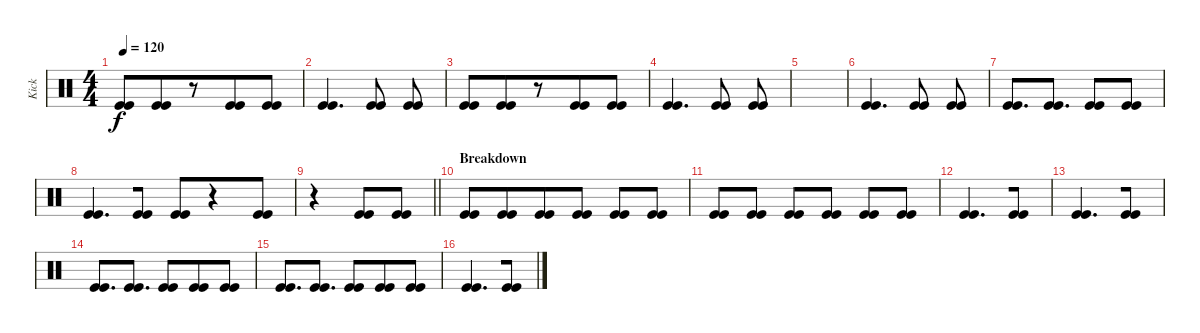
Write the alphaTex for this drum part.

\track ("Kick" "Kick") {instrument percussion}
\staff {score}
\articulation defaults
\ts (4 4)
\tempo 120
\clef neutral
\ks c
("Kick (hit)" "Kick (hit)").8{dy f} ("Kick (hit)" "Kick (hit)").8{beam merge} r.8 ("Kick (hit)" "Kick (hit)").8{beam merge} ("Kick (hit)" "Kick (hit)").8 |
("Kick (hit)" "Kick (hit)").4{d} ("Kick (hit)" "Kick (hit)").8 ("Kick (hit)" "Kick (hit)").8 |
("Kick (hit)" "Kick (hit)").8 ("Kick (hit)" "Kick (hit)").8{beam merge} r.8 ("Kick (hit)" "Kick (hit)").8{beam merge} ("Kick (hit)" "Kick (hit)").8 |
("Kick (hit)" "Kick (hit)").4{d} ("Kick (hit)" "Kick (hit)").8 ("Kick (hit)" "Kick (hit)").8 |
|
("Kick (hit)" "Kick (hit)").4{d} ("Kick (hit)" "Kick (hit)").8 ("Kick (hit)" "Kick (hit)").8 |
("Kick (hit)" "Kick (hit)").8{d beam merge} ("Kick (hit)" "Kick (hit)").8{d} ("Kick (hit)" "Kick (hit)").8{beam merge} ("Kick (hit)" "Kick (hit)").8 |
("Kick (hit)" "Kick (hit)").4{d beam merge} ("Kick (hit)" "Kick (hit)").8 ("Kick (hit)" "Kick (hit)").8{beam merge} r.4 ("Kick (hit)" "Kick (hit)").8 |
\barLineRight lightlight
r.4{beam merge} ("Kick (hit)" "Kick (hit)").8{beam merge} ("Kick (hit)" "Kick (hit)").8 |
\section ("" "Breakdown")
("Kick (hit)" "Kick (hit)").8{beam merge} ("Kick (hit)" "Kick (hit)").8{beam merge} ("Kick (hit)" "Kick (hit)").8 ("Kick (hit)" "Kick (hit)").8 ("Kick (hit)" "Kick (hit)").8{beam merge} ("Kick (hit)" "Kick (hit)").8 |
("Kick (hit)" "Kick (hit)").8 ("Kick (hit)" "Kick (hit)").8 ("Kick (hit)" "Kick (hit)").8{beam merge} ("Kick (hit)" "Kick (hit)").8 ("Kick (hit)" "Kick (hit)").8 ("Kick (hit)" "Kick (hit)").8 |
("Kick (hit)" "Kick (hit)").4{d beam merge} ("Kick (hit)" "Kick (hit)").8 |
("Kick (hit)" "Kick (hit)").4{d beam merge} ("Kick (hit)" "Kick (hit)").8 |
("Kick (hit)" "Kick (hit)").8{d beam merge} ("Kick (hit)" "Kick (hit)").8{d} ("Kick (hit)" "Kick (hit)").8{beam merge} ("Kick (hit)" "Kick (hit)").8 ("Kick (hit)" "Kick (hit)").8 |
("Kick (hit)" "Kick (hit)").8{d beam merge} ("Kick (hit)" "Kick (hit)").8{d} ("Kick (hit)" "Kick (hit)").8{beam merge} ("Kick (hit)" "Kick (hit)").8 ("Kick (hit)" "Kick (hit)").8 |
("Kick (hit)" "Kick (hit)").4{d beam merge} ("Kick (hit)" "Kick (hit)").8
